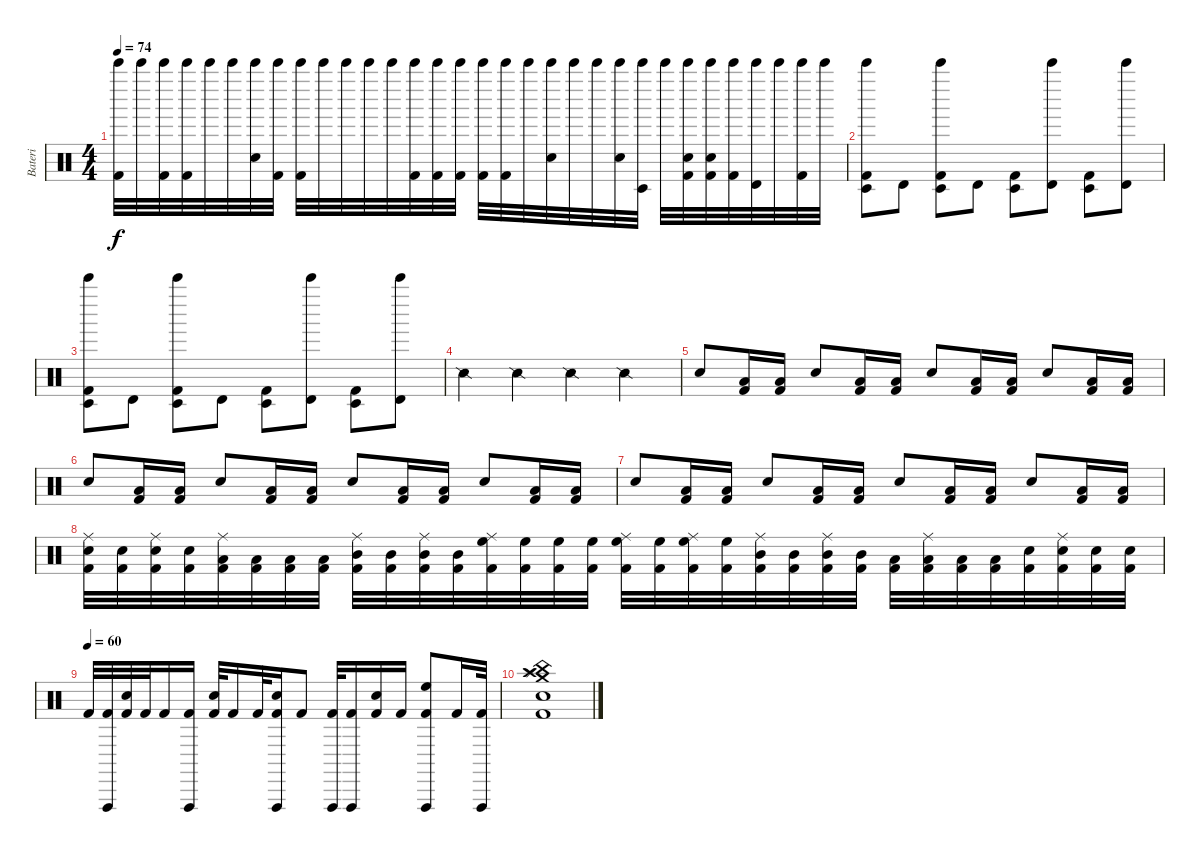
\track ("Bateri" "Bateri") {instrument percussion}
\staff {score}
\articulation defaults
\ts (4 4)
\tempo 74
\clef neutral
\ks c
("Bell Tree (hit)" "Kick (hit) 2").32{dy f} "Bell Tree (hit)".32 ("Bell Tree (hit)" "Kick (hit) 2").32 ("Bell Tree (hit)" "Kick (hit) 2").32 "Bell Tree (hit)".32 "Bell Tree (hit)".32 ("Bell Tree (hit)" "Electric Snare (hit)").32 ("Bell Tree (hit)" "Kick (hit) 2").32 ("Bell Tree (hit)" "Kick (hit) 2").32 "Bell Tree (hit)".32 "Bell Tree (hit)".32 "Bell Tree (hit)".32 "Bell Tree (hit)".32 ("Bell Tree (hit)" "Kick (hit) 2").32 ("Bell Tree (hit)" "Kick (hit) 2").32 ("Bell Tree (hit)" "Kick (hit) 2").32 ("Bell Tree (hit)" "Kick (hit) 2").32 ("Bell Tree (hit)" "Kick (hit) 2").32 "Bell Tree (hit)".32 ("Bell Tree (hit)" "Electric Snare (hit)").32 "Bell Tree (hit)".32 "Bell Tree (hit)".32 ("Bell Tree (hit)" "Electric Snare (hit)").32 ("Bell Tree (hit)" "Timbale low (hit)").32 "Bell Tree (hit)".32 ("Bell Tree (hit)" "Electric Snare (hit)" "Kick (hit) 2").32 ("Bell Tree (hit)" "Electric Snare (hit)" "Kick (hit) 2").32 ("Bell Tree (hit)" "Kick (hit) 2").32 ("Bell Tree (hit)" "Timbale high (hit)").32 "Bell Tree (hit)".32 ("Bell Tree (hit)" "Kick (hit) 2").32 "Bell Tree (hit)".32 |
("Bell Tree (hit)" "Timbale low (hit)" "Kick (hit) 2").8 "Timbale high (hit)".8 ("Bell Tree (hit)" "Timbale low (hit)" "Kick (hit) 2").8 "Timbale high (hit)".8 ("Kick (hit) 2" "Timbale low (hit)").8 ("Timbale high (hit)" "Bell Tree (hit)").8 ("Kick (hit) 2" "Timbale low (hit)").8 ("Timbale high (hit)" "Bell Tree (hit)").8 |
("Bell Tree (hit)" "Timbale low (hit)" "Kick (hit) 2").8 "Timbale high (hit)".8 ("Bell Tree (hit)" "Timbale low (hit)" "Kick (hit) 2").8 "Timbale high (hit)".8 ("Kick (hit) 2" "Timbale low (hit)").8 ("Timbale high (hit)" "Bell Tree (hit)").8 ("Kick (hit) 2" "Timbale low (hit)").8 ("Timbale high (hit)" "Bell Tree (hit)").8 |
"Snare (side stick) 2".4 "Snare (side stick) 2".4 "Snare (side stick) 2".4 "Snare (side stick) 2".4 |
"Electric Snare (hit)".8 ("Low Tom (hit)" "Kick (hit) 2").16 ("Low Tom (hit)" "Kick (hit) 2").16 "Electric Snare (hit)".8 ("Low Tom (hit)" "Kick (hit) 2").16 ("Low Tom (hit)" "Kick (hit) 2").16 "Electric Snare (hit)".8 ("Low Tom (hit)" "Kick (hit) 2").16 ("Low Tom (hit)" "Kick (hit) 2").16 "Electric Snare (hit)".8 ("Low Tom (hit)" "Kick (hit) 2").16 ("Low Tom (hit)" "Kick (hit) 2").16 |
"Electric Snare (hit)".8 ("Low Tom (hit)" "Kick (hit) 2").16 ("Low Tom (hit)" "Kick (hit) 2").16 "Electric Snare (hit)".8 ("Low Tom (hit)" "Kick (hit) 2").16 ("Low Tom (hit)" "Kick (hit) 2").16 "Electric Snare (hit)".8 ("Low Tom (hit)" "Kick (hit) 2").16 ("Low Tom (hit)" "Kick (hit) 2").16 "Electric Snare (hit)".8 ("Low Tom (hit)" "Kick (hit) 2").16 ("Low Tom (hit)" "Kick (hit) 2").16 |
"Electric Snare (hit)".8 ("Low Tom (hit)" "Kick (hit) 2").16 ("Low Tom (hit)" "Kick (hit) 2").16 "Electric Snare (hit)".8 ("Low Tom (hit)" "Kick (hit) 2").16 ("Low Tom (hit)" "Kick (hit) 2").16 "Electric Snare (hit)".8 ("Low Tom (hit)" "Kick (hit) 2").16 ("Low Tom (hit)" "Kick (hit) 2").16 "Electric Snare (hit)".8 ("Low Tom (hit)" "Kick (hit) 2").16 ("Low Tom (hit)" "Kick (hit) 2").16 |
("Ride (middle)" "Electric Snare (hit)" "Kick (hit) 2").32 ("Electric Snare (hit)" "Kick (hit) 2").32 ("Ride (middle)" "Electric Snare (hit)" "Kick (hit) 2").32 ("Electric Snare (hit)" "Kick (hit) 2").32 ("Ride (middle)" "Low Tom (hit)" "Kick (hit) 2").32 ("Low Tom (hit)" "Kick (hit) 2").32 ("Low Tom (hit)" "Kick (hit) 2").32 ("Low Tom (hit)" "Kick (hit) 2").32 ("Ride (middle)" "Mid Tom (hit)" "Kick (hit) 2").32 ("Mid Tom (hit)" "Kick (hit) 2").32 ("Ride (middle)" "Mid Tom (hit)" "Kick (hit) 2").32 ("Mid Tom (hit)" "Kick (hit) 2").32 ("Ride (middle)" "High Floor Tom (hit)" "Kick (hit) 2").32 ("High Floor Tom (hit)" "Kick (hit) 2").32 ("High Floor Tom (hit)" "Kick (hit) 2").32 ("High Floor Tom (hit)" "Kick (hit) 2").32 ("Ride (middle)" "High Floor Tom (hit)" "Kick (hit) 2").32 ("High Floor Tom (hit)" "Kick (hit) 2").32 ("Ride (middle)" "High Floor Tom (hit)" "Kick (hit) 2").32 ("High Floor Tom (hit)" "Kick (hit) 2").32 ("Ride (middle)" "Mid Tom (hit)" "Kick (hit) 2").32 ("Mid Tom (hit)" "Kick (hit) 2").32 ("Ride (middle)" "Mid Tom (hit)" "Kick (hit) 2").32 ("Mid Tom (hit)" "Kick (hit) 2").32 ("Low Tom (hit)" "Kick (hit) 2").32 ("Ride (middle)" "Low Tom (hit)" "Kick (hit) 2").32 ("Low Tom (hit)" "Kick (hit) 2").32 ("Low Tom (hit)" "Kick (hit) 2").32 ("Electric Snare (hit)" "Kick (hit) 2").32 ("Ride (middle)" "Electric Snare (hit)" "Kick (hit) 2").32 ("Electric Snare (hit)" "Kick (hit) 2").32 ("Electric Snare (hit)" "Kick (hit) 2").32 |
\tempo (60)
"Kick (hit) 2".32 ("Vibraslap (hit)" "Kick (hit) 2").32 ("Electric Snare (hit)" "Kick (hit) 2").32 "Kick (hit) 2".32 "Kick (hit) 2".16 ("Vibraslap (hit)" "Kick (hit) 2").16 ("Electric Snare (hit)" "Kick (hit) 2").32 "Kick (hit) 2".16 "Kick (hit) 2".32 ("Vibraslap (hit)" "Electric Snare (hit)" "Kick (hit) 2").16 "Kick (hit) 2".8 ("Vibraslap (hit)" "Kick (hit) 2").32 ("Vibraslap (hit)" "Kick (hit) 2").16 ("Electric Snare (hit)" "Kick (hit) 2").16 "Kick (hit) 2".16 ("Vibraslap (hit)" "High Floor Tom (hit)" "Kick (hit) 2").8 "Kick (hit) 2".16 ("Vibraslap (hit)" "Kick (hit) 2").32 |
("China (hit)" "Crash high (hit)" "Crash medium (hit)" "Splash (hit)" "Electric Snare (hit)" "Kick (hit) 2").1
